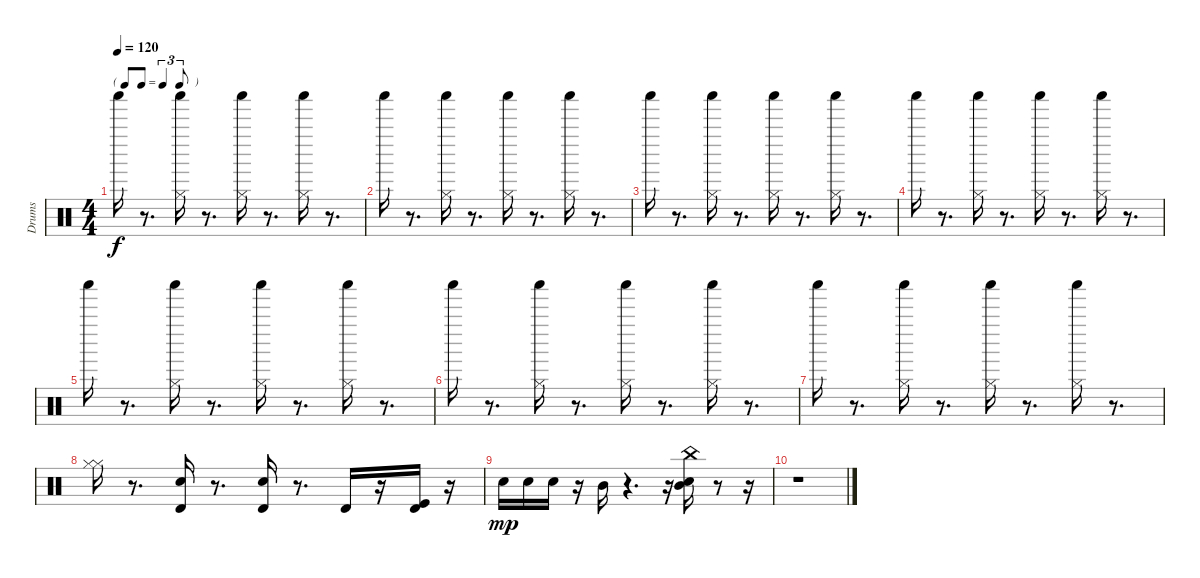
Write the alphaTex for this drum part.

\track ("Drums  " "Drums  ") {instrument percussion}
\staff {score}
\articulation defaults
\ts (4 4)
\tf triplet8th
\tempo 120
\clef neutral
\ks c "Shaker (hit)".16{dy f}
r.8{d} ("Shaker (hit)" "Hi-Hat (closed)").16 r.8{d} ("Shaker (hit)" "Hi-Hat (closed)").16 r.8{d} ("Shaker (hit)" "Hi-Hat (closed)").16 r.8{d} |
"Shaker (hit)".16 r.8{d} ("Shaker (hit)" "Hi-Hat (closed)").16 r.8{d} ("Shaker (hit)" "Hi-Hat (closed)").16 r.8{d} ("Shaker (hit)" "Hi-Hat (closed)").16 r.8{d} |
"Shaker (hit)".16 r.8{d} ("Shaker (hit)" "Hi-Hat (closed)").16 r.8{d} ("Shaker (hit)" "Hi-Hat (closed)").16 r.8{d} ("Shaker (hit)" "Hi-Hat (closed)").16 r.8{d} |
"Shaker (hit)".16 r.8{d} ("Shaker (hit)" "Hi-Hat (closed)").16 r.8{d} ("Shaker (hit)" "Hi-Hat (closed)").16 r.8{d} ("Shaker (hit)" "Hi-Hat (closed)").16 r.8{d} |
"Shaker (hit)".16 r.8{d} ("Shaker (hit)" "Hi-Hat (closed)").16 r.8{d} ("Shaker (hit)" "Hi-Hat (closed)").16 r.8{d} ("Shaker (hit)" "Hi-Hat (closed)").16 r.8{d} |
"Shaker (hit)".16 r.8{d} ("Shaker (hit)" "Hi-Hat (closed)").16 r.8{d} ("Shaker (hit)" "Hi-Hat (closed)").16 r.8{d} ("Shaker (hit)" "Hi-Hat (closed)").16 r.8{d} |
"Shaker (hit)".16 r.8{d} ("Shaker (hit)" "Hi-Hat (closed)").16 r.8{d} ("Shaker (hit)" "Hi-Hat (closed)").16 r.8{d} ("Shaker (hit)" "Hi-Hat (closed)").16 r.8{d} |
("Hi-Hat (closed)" "Hi-Hat (closed)").16 r.8{d} ("Timbale high (hit)" "Snare (hit) 2").16 r.8{d} ("Timbale high (hit)" "Snare (hit) 2").16 r.8{d} "Timbale high (hit)".16 r.16 ("Timbale high (hit)" "Kick (hit)").16 r.16 |
"Snare (hit) 2".16{dy mp} "Snare (hit) 2".16 "Snare (hit) 2".16 r.16 "Mid Tom (hit)".16 r.4{d} r.16 ("Snare (hit) 2" "Mid Tom (hit)" "China (hit)").16 r.8 r.16 |
r.1
